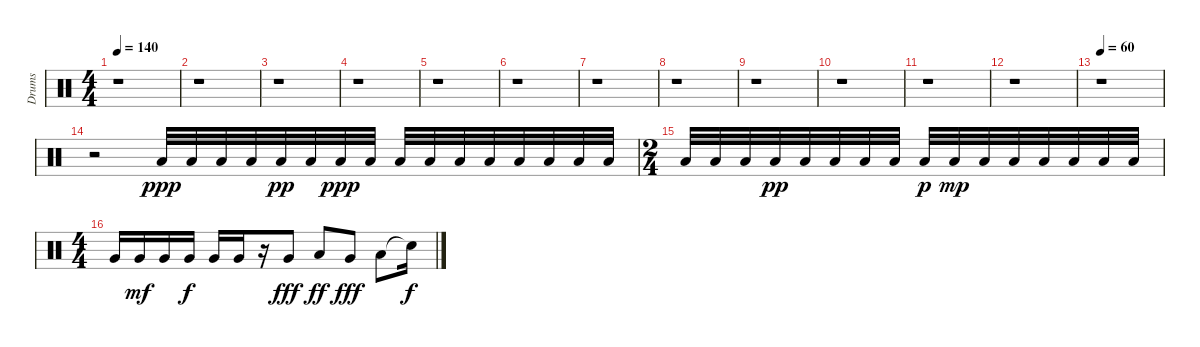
\track ("Drums" "Drums") {instrument percussion}
\staff {score}
\articulation defaults
\ts (4 4)
\tempo 140
\clef neutral
\ks c
r.1{dy f} |
r.1 |
r.1 |
r.1 |
r.1 |
r.1 |
r.1 |
r.1 |
r.1 |
r.1 |
r.1 |
r.1 |
\tempo 60
r.1 |
r.2 "Low Tom (hit)".32{dy ppp volume 10} "Low Tom (hit)".32 "Low Tom (hit)".32 "Low Tom (hit)".32 "Low Tom (hit)".32{dy pp} "Low Tom (hit)".32 "Low Tom (hit)".32{dy ppp} "Low Tom (hit)".32 "Low Tom (hit)".32 "Low Tom (hit)".32 "Low Tom (hit)".32 "Low Tom (hit)".32 "Low Tom (hit)".32 "Low Tom (hit)".32 "Low Tom (hit)".32 "Low Tom (hit)".32 |
\ts (2 4)
"Low Tom (hit)".32{volume 13} "Low Tom (hit)".32 "Low Tom (hit)".32 "Low Tom (hit)".32{dy pp} "Low Tom (hit)".32 "Low Tom (hit)".32 "Low Tom (hit)".32 "Low Tom (hit)".32 "Low Tom (hit)".32{dy p} "Low Tom (hit)".32{dy mp} "Low Tom (hit)".32 "Low Tom (hit)".32 "Low Tom (hit)".32 "Low Tom (hit)".32 "Low Tom (hit)".32 "Low Tom (hit)".32 |
\ts (4 4)
"Very Low Tom (hit)".16 "Very Low Tom (hit)".16{dy mf} "Very Low Tom (hit)".16 "Very Low Tom (hit)".16{dy f} "Very Low Tom (hit)".16 "Very Low Tom (hit)".16 r.16 "Very Low Tom (hit)".8{dy fff} "Low Floor Tom (hit)".8{dy ff} "Very Low Tom (hit)".8{dy fff} "Low Floor Tom (hit)".8 "Snare (hit)"{t}.16{dy f}
